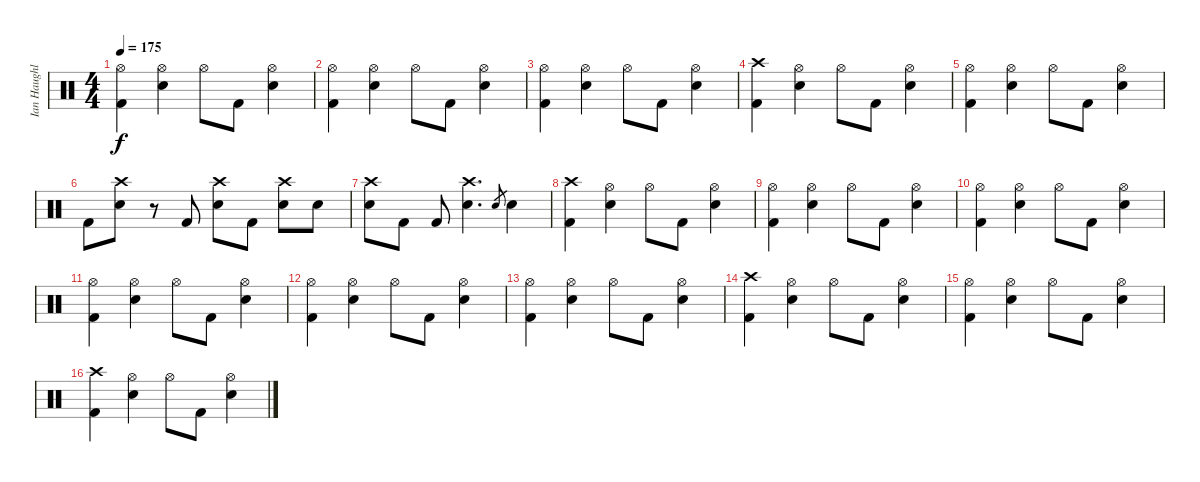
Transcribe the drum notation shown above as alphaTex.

\track ("Ian Haughland" "Ian Haughl") {instrument percussion}
\staff {score}
\articulation defaults
\ts (4 4)
\tempo 175
\clef neutral
\ks c
("Hi-Hat (open)" "Kick (hit) 2").4{dy f} ("Hi-Hat (open)" "Snare (hit) 2").4 "Hi-Hat (open)".8 "Kick (hit) 2".8 ("Hi-Hat (open)" "Snare (hit) 2").4 |
("Hi-Hat (open)" "Kick (hit) 2").4 ("Hi-Hat (open)" "Snare (hit) 2").4 "Hi-Hat (open)".8 "Kick (hit) 2".8 ("Hi-Hat (open)" "Snare (hit) 2").4 |
("Hi-Hat (open)" "Kick (hit) 2").4 ("Hi-Hat (open)" "Snare (hit) 2").4 "Hi-Hat (open)".8 "Kick (hit) 2".8 ("Hi-Hat (open)" "Snare (hit) 2").4 |
("Crash high (hit)" "Kick (hit) 2").4 ("Hi-Hat (open)" "Snare (hit) 2").4 "Hi-Hat (open)".8 "Kick (hit) 2".8 ("Hi-Hat (open)" "Snare (hit) 2").4 |
("Hi-Hat (open)" "Kick (hit) 2").4 ("Hi-Hat (open)" "Snare (hit) 2").4 "Hi-Hat (open)".8 "Kick (hit) 2".8 ("Hi-Hat (open)" "Snare (hit) 2").4 |
"Kick (hit) 2".8 ("Crash high (hit)" "Snare (hit) 2").8 r.8 "Kick (hit) 2".8 ("Crash high (hit)" "Snare (hit) 2").8 "Kick (hit) 2".8 ("Crash high (hit)" "Snare (hit) 2").8 "Snare (hit) 2".8 |
("Crash high (hit)" "Snare (hit) 2").8 "Kick (hit) 2".8 "Kick (hit) 2".8 ("Crash high (hit)" "Snare (hit) 2").4{d} "Snare (hit) 2".8{gr} "Snare (hit) 2".4 |
("Crash high (hit)" "Kick (hit) 2").4 ("Hi-Hat (open)" "Snare (hit) 2").4 "Hi-Hat (open)".8 "Kick (hit) 2".8 ("Hi-Hat (open)" "Snare (hit) 2").4 |
("Hi-Hat (open)" "Kick (hit) 2").4 ("Hi-Hat (open)" "Snare (hit) 2").4 "Hi-Hat (open)".8 "Kick (hit) 2".8 ("Hi-Hat (open)" "Snare (hit) 2").4 |
("Hi-Hat (open)" "Kick (hit) 2").4 ("Hi-Hat (open)" "Snare (hit) 2").4 "Hi-Hat (open)".8 "Kick (hit) 2".8 ("Hi-Hat (open)" "Snare (hit) 2").4 |
("Hi-Hat (open)" "Kick (hit) 2").4 ("Hi-Hat (open)" "Snare (hit) 2").4 "Hi-Hat (open)".8 "Kick (hit) 2".8 ("Hi-Hat (open)" "Snare (hit) 2").4 |
("Hi-Hat (open)" "Kick (hit) 2").4 ("Hi-Hat (open)" "Snare (hit) 2").4 "Hi-Hat (open)".8 "Kick (hit) 2".8 ("Hi-Hat (open)" "Snare (hit) 2").4 |
("Hi-Hat (open)" "Kick (hit) 2").4 ("Hi-Hat (open)" "Snare (hit) 2").4 "Hi-Hat (open)".8 "Kick (hit) 2".8 ("Hi-Hat (open)" "Snare (hit) 2").4 |
("Crash high (hit)" "Kick (hit) 2").4 ("Hi-Hat (open)" "Snare (hit) 2").4 "Hi-Hat (open)".8 "Kick (hit) 2".8 ("Hi-Hat (open)" "Snare (hit) 2").4 |
("Hi-Hat (open)" "Kick (hit) 2").4 ("Hi-Hat (open)" "Snare (hit) 2").4 "Hi-Hat (open)".8 "Kick (hit) 2".8 ("Hi-Hat (open)" "Snare (hit) 2").4 |
("Crash high (hit)" "Kick (hit) 2").4 ("Hi-Hat (open)" "Snare (hit) 2").4 "Hi-Hat (open)".8 "Kick (hit) 2".8 ("Hi-Hat (open)" "Snare (hit) 2").4
